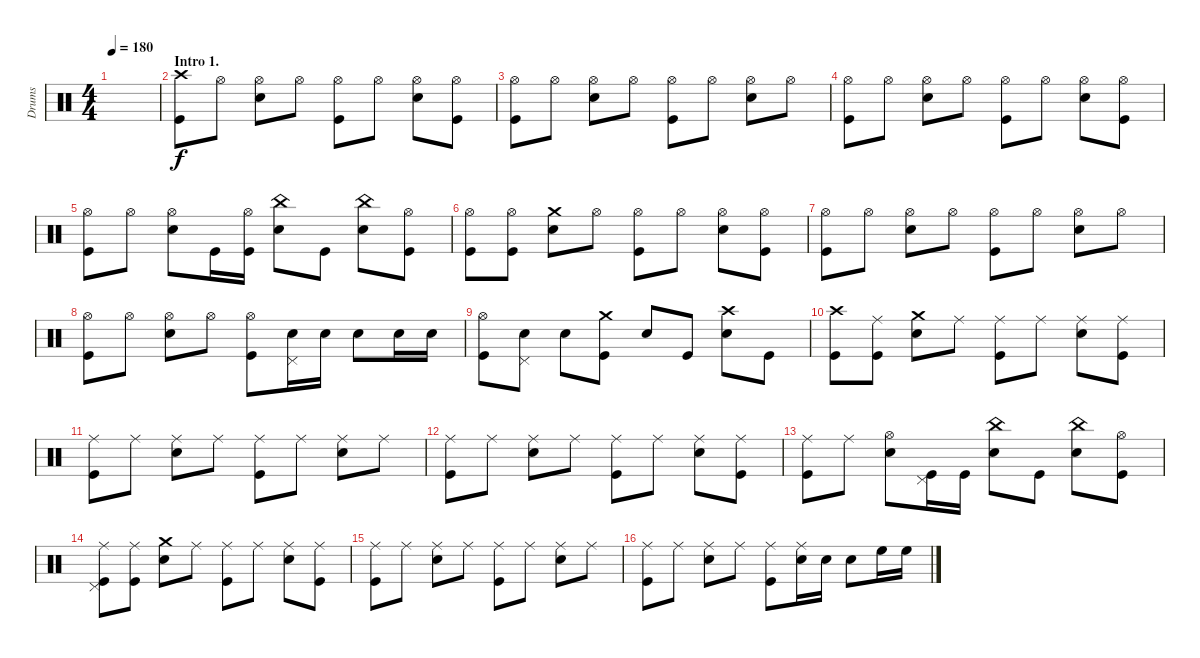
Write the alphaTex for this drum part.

\track ("Drums" "Drums") {instrument percussion}
\staff {score}
\articulation defaults
\ts (4 4)
\tempo 180
\clef neutral
\ks c
|
\section ("" "Intro 1.")
("Crash high (hit)" "Kick (hit)").8 "Hi-Hat (open)".8 ("Hi-Hat (open)" "Electric Snare (hit)").8 "Hi-Hat (open)".8 ("Hi-Hat (open)" "Kick (hit)").8 "Hi-Hat (open)".8 ("Hi-Hat (open)" "Electric Snare (hit)").8 ("Hi-Hat (open)" "Kick (hit)").8 |
("Hi-Hat (open)" "Kick (hit)").8 "Hi-Hat (open)".8 ("Hi-Hat (open)" "Electric Snare (hit)").8 "Hi-Hat (open)".8 ("Hi-Hat (open)" "Kick (hit)").8 "Hi-Hat (open)".8 ("Hi-Hat (open)" "Electric Snare (hit)").8 "Hi-Hat (open)".8 |
("Hi-Hat (open)" "Kick (hit)").8 "Hi-Hat (open)".8 ("Hi-Hat (open)" "Electric Snare (hit)").8 "Hi-Hat (open)".8 ("Hi-Hat (open)" "Kick (hit)").8 "Hi-Hat (open)".8 ("Hi-Hat (open)" "Electric Snare (hit)").8 ("Hi-Hat (open)" "Kick (hit)").8 |
("Hi-Hat (open)" "Kick (hit)").8 "Hi-Hat (open)".8 ("Hi-Hat (open)" "Electric Snare (hit)").8 "Kick (hit)".16 ("Hi-Hat (open)" "Kick (hit)").16 ("China (hit)" "Electric Snare (hit)").8 "Kick (hit)".8 ("China (hit)" "Electric Snare (hit)").8 ("Hi-Hat (open)" "Kick (hit)").8 |
("Hi-Hat (open)" "Kick (hit)").8 ("Hi-Hat (open)" "Kick (hit)").8 ("Crash medium (hit)" "Electric Snare (hit)").8 "Hi-Hat (open)".8 ("Hi-Hat (open)" "Kick (hit)").8 "Hi-Hat (open)".8 ("Hi-Hat (open)" "Electric Snare (hit)").8 ("Hi-Hat (open)" "Kick (hit)").8 |
("Hi-Hat (open)" "Kick (hit)").8 "Hi-Hat (open)".8 ("Hi-Hat (open)" "Electric Snare (hit)").8 "Hi-Hat (open)".8 ("Hi-Hat (open)" "Kick (hit)").8 "Hi-Hat (open)".8 ("Hi-Hat (open)" "Electric Snare (hit)").8 "Hi-Hat (open)".8 |
("Hi-Hat (open)" "Kick (hit)").8 "Hi-Hat (open)".8 ("Hi-Hat (open)" "Electric Snare (hit)").8 "Hi-Hat (open)".8 ("Hi-Hat (open)" "Kick (hit)").8 ("Pedal Hi-Hat (hit)" "Electric Snare (hit)").16 "Electric Snare (hit)".16 "Electric Snare (hit)".8 "Electric Snare (hit)".16 "Electric Snare (hit)".16 |
("Hi-Hat (open)" "Kick (hit)").8 ("Pedal Hi-Hat (hit)" "Electric Snare (hit)").8 "Electric Snare (hit)".8 ("Crash medium (hit)" "Kick (hit)").8 "Electric Snare (hit)".8 "Kick (hit)".8 ("Crash high (hit)" "Electric Snare (hit)").8 "Kick (hit)".8 |
("Crash high (hit)" "Kick (hit)").8 ("Ride (middle)" "Kick (hit)").8 ("Crash medium (hit)" "Electric Snare (hit)").8 "Ride (middle)".8 ("Ride (middle)" "Kick (hit)").8 "Ride (middle)".8 ("Ride (middle)" "Electric Snare (hit)").8 ("Ride (middle)" "Kick (hit)").8 |
("Ride (middle)" "Kick (hit)").8 "Ride (middle)".8 ("Ride (middle)" "Electric Snare (hit)").8 "Ride (middle)".8 ("Ride (middle)" "Kick (hit)").8 "Ride (middle)".8 ("Ride (middle)" "Electric Snare (hit)").8 "Ride (middle)".8 |
("Ride (middle)" "Kick (hit)").8 "Ride (middle)".8 ("Ride (middle)" "Electric Snare (hit)").8 "Ride (middle)".8 ("Ride (middle)" "Kick (hit)").8 "Ride (middle)".8 ("Ride (middle)" "Electric Snare (hit)").8 ("Ride (middle)" "Kick (hit)").8 |
("Ride (middle)" "Kick (hit)").8 "Ride (middle)".8 ("Hi-Hat (open)" "Electric Snare (hit)").8 ("Pedal Hi-Hat (hit)" "Kick (hit)").16 "Kick (hit)".16 ("China (hit)" "Electric Snare (hit)").8 "Kick (hit)".8 ("China (hit)" "Electric Snare (hit)").8 ("Hi-Hat (open)" "Kick (hit)").8 |
("Ride (middle)" "Pedal Hi-Hat (hit)" "Kick (hit)").8 ("Ride (middle)" "Kick (hit)").8 ("Crash medium (hit)" "Electric Snare (hit)").8 "Ride (middle)".8 ("Ride (middle)" "Kick (hit)").8 "Ride (middle)".8 ("Ride (middle)" "Electric Snare (hit)").8 ("Ride (middle)" "Kick (hit)").8 |
("Ride (middle)" "Kick (hit)").8 "Ride (middle)".8 ("Ride (middle)" "Electric Snare (hit)").8 "Ride (middle)".8 ("Ride (middle)" "Kick (hit)").8 "Ride (middle)".8 ("Ride (middle)" "Electric Snare (hit)").8 "Ride (middle)".8 |
("Ride (middle)" "Kick (hit)").8 "Ride (middle)".8 ("Ride (middle)" "Electric Snare (hit)").8 "Ride (middle)".8 ("Ride (middle)" "Kick (hit)").8 ("Ride (middle)" "Electric Snare (hit)").16 "Electric Snare (hit)".16 "Electric Snare (hit)".8 "High Floor Tom (hit)".16 "High Floor Tom (hit)".16
